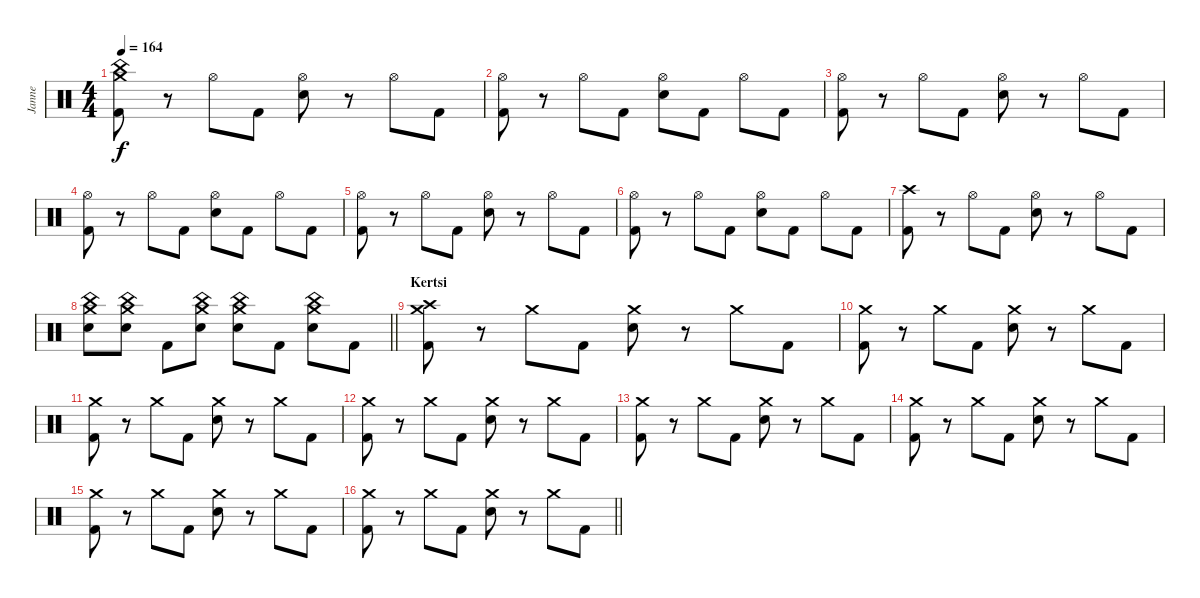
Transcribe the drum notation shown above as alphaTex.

\track ("Janne" "Janne") {instrument percussion}
\staff {score}
\articulation defaults
\ts (4 4)
\tempo 164
\clef neutral
\ks c
("China (hit)" "Kick (hit) 2" "Crash medium (hit)").8{dy f} r.8 "Hi-Hat (open)".8 "Kick (hit) 2".8 ("Hi-Hat (open)" "Electric Snare (hit)").8 r.8 "Hi-Hat (open)".8 "Kick (hit) 2".8 |
("Hi-Hat (open)" "Kick (hit) 2").8 r.8 "Hi-Hat (open)".8 "Kick (hit) 2".8 ("Hi-Hat (open)" "Electric Snare (hit)").8 "Kick (hit) 2".8 "Hi-Hat (open)".8 "Kick (hit) 2".8 |
("Hi-Hat (open)" "Kick (hit) 2").8 r.8 "Hi-Hat (open)".8 "Kick (hit) 2".8 ("Hi-Hat (open)" "Electric Snare (hit)").8 r.8 "Hi-Hat (open)".8 "Kick (hit) 2".8 |
("Hi-Hat (open)" "Kick (hit) 2").8 r.8 "Hi-Hat (open)".8 "Kick (hit) 2".8 ("Hi-Hat (open)" "Electric Snare (hit)").8 "Kick (hit) 2".8 "Hi-Hat (open)".8 "Kick (hit) 2".8 |
("Hi-Hat (open)" "Kick (hit) 2").8 r.8 "Hi-Hat (open)".8 "Kick (hit) 2".8 ("Hi-Hat (open)" "Electric Snare (hit)").8 r.8 "Hi-Hat (open)".8 "Kick (hit) 2".8 |
("Hi-Hat (open)" "Kick (hit) 2").8 r.8 "Hi-Hat (open)".8 "Kick (hit) 2".8 ("Hi-Hat (open)" "Electric Snare (hit)").8 "Kick (hit) 2".8 "Hi-Hat (open)".8 "Kick (hit) 2".8 |
("Crash high (hit)" "Kick (hit) 2").8 r.8 "Hi-Hat (open)".8 "Kick (hit) 2".8 ("Hi-Hat (open)" "Electric Snare (hit)").8 r.8 "Hi-Hat (open)".8 "Kick (hit) 2".8 |
\barLineRight lightlight
("China (hit)" "Electric Snare (hit)" "Crash medium (hit)").8 ("China (hit)" "Electric Snare (hit)" "Crash medium (hit)").8 "Kick (hit) 2".8 ("China (hit)" "Electric Snare (hit)" "Crash medium (hit)").8 ("China (hit)" "Electric Snare (hit)" "Crash medium (hit)").8 "Kick (hit) 2".8 ("China (hit)" "Electric Snare (hit)" "Crash medium (hit)").8 "Kick (hit) 2".8 |
\section ("" "Kertsi")
("Crash medium (hit)" "Crash high (hit)" "Kick (hit) 2").8 r.8 "Crash medium (hit)".8 "Kick (hit) 2".8 ("Crash medium (hit)" "Electric Snare (hit)").8 r.8 "Crash medium (hit)".8 "Kick (hit) 2".8 |
("Crash medium (hit)" "Kick (hit) 2").8 r.8 "Crash medium (hit)".8 "Kick (hit) 2".8 ("Crash medium (hit)" "Electric Snare (hit)").8 r.8 "Crash medium (hit)".8 "Kick (hit) 2".8 |
("Crash medium (hit)" "Kick (hit) 2").8 r.8 "Crash medium (hit)".8 "Kick (hit) 2".8 ("Crash medium (hit)" "Electric Snare (hit)").8 r.8 "Crash medium (hit)".8 "Kick (hit) 2".8 |
("Crash medium (hit)" "Kick (hit) 2").8 r.8 "Crash medium (hit)".8 "Kick (hit) 2".8 ("Crash medium (hit)" "Electric Snare (hit)").8 r.8 "Crash medium (hit)".8 "Kick (hit) 2".8 |
("Crash medium (hit)" "Kick (hit) 2").8 r.8 "Crash medium (hit)".8 "Kick (hit) 2".8 ("Crash medium (hit)" "Electric Snare (hit)").8 r.8 "Crash medium (hit)".8 "Kick (hit) 2".8 |
("Crash medium (hit)" "Kick (hit) 2").8 r.8 "Crash medium (hit)".8 "Kick (hit) 2".8 ("Crash medium (hit)" "Electric Snare (hit)").8 r.8 "Crash medium (hit)".8 "Kick (hit) 2".8 |
("Crash medium (hit)" "Kick (hit) 2").8 r.8 "Crash medium (hit)".8 "Kick (hit) 2".8 ("Crash medium (hit)" "Electric Snare (hit)").8 r.8 "Crash medium (hit)".8 "Kick (hit) 2".8 |
\barLineRight lightlight
("Crash medium (hit)" "Kick (hit) 2").8 r.8 "Crash medium (hit)".8 "Kick (hit) 2".8 ("Crash medium (hit)" "Electric Snare (hit)").8 r.8 "Crash medium (hit)".8 "Kick (hit) 2".8
